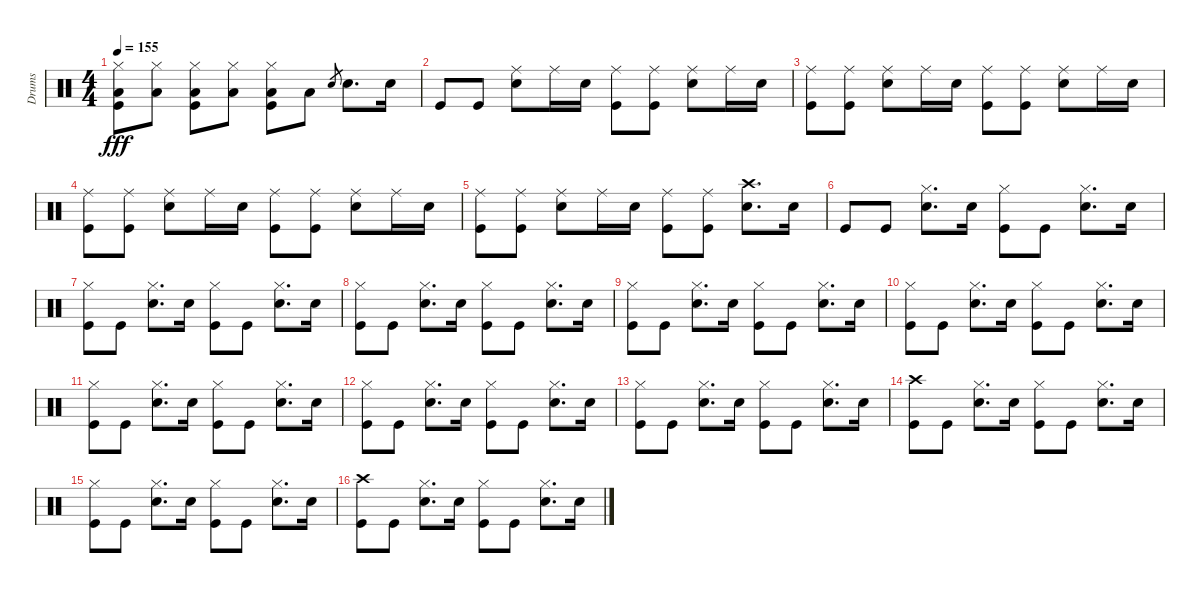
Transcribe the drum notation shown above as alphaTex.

\track ("Drums" "Drums") {instrument percussion}
\staff {score}
\articulation defaults
\ts (4 4)
\tempo 155
\clef neutral
\ks c
("Hi-Hat (closed)" "Low Floor Tom (hit)" "Kick (hit)").8{dy fff} ("Hi-Hat (closed)" "Low Floor Tom (hit)").8 ("Hi-Hat (closed)" "Low Floor Tom (hit)" "Kick (hit)").8 ("Hi-Hat (closed)" "Low Floor Tom (hit)").8 ("Hi-Hat (closed)" "Low Floor Tom (hit)" "Kick (hit)").8 "Low Floor Tom (hit)".8 "Snare (hit) 2".8{gr} "Snare (hit) 2".8{d} "Snare (hit) 2".16 |
"Kick (hit)".8 "Kick (hit)".8 ("Ride (middle)" "Snare (hit) 2").8 "Ride (middle)".16 "Snare (hit) 2".16 ("Ride (middle)" "Kick (hit)").8 ("Ride (middle)" "Kick (hit)").8 ("Ride (middle)" "Snare (hit) 2").8 "Ride (middle)".16 "Snare (hit) 2".16 |
("Ride (middle)" "Kick (hit)").8 ("Ride (middle)" "Kick (hit)").8 ("Ride (middle)" "Snare (hit) 2").8 "Ride (middle)".16 "Snare (hit) 2".16 ("Ride (middle)" "Kick (hit)").8 ("Ride (middle)" "Kick (hit)").8 ("Ride (middle)" "Snare (hit) 2").8 "Ride (middle)".16 "Snare (hit) 2".16 |
("Ride (middle)" "Kick (hit)").8 ("Ride (middle)" "Kick (hit)").8 ("Ride (middle)" "Snare (hit) 2").8 "Ride (middle)".16 "Snare (hit) 2".16 ("Ride (middle)" "Kick (hit)").8 ("Ride (middle)" "Kick (hit)").8 ("Ride (middle)" "Snare (hit) 2").8 "Ride (middle)".16 "Snare (hit) 2".16 |
("Ride (middle)" "Kick (hit)").8 ("Ride (middle)" "Kick (hit)").8 ("Ride (middle)" "Snare (hit) 2").8 "Ride (middle)".16 "Snare (hit) 2".16 ("Ride (middle)" "Kick (hit)").8 ("Ride (middle)" "Kick (hit)").8 ("Crash high (hit)" "Snare (hit) 2").8{d} "Snare (hit) 2".16 |
"Kick (hit)".8 "Kick (hit)".8 ("Hi-Hat (closed)" "Snare (hit) 2").8{d} "Snare (hit) 2".16 ("Hi-Hat (closed)" "Kick (hit)").8 "Kick (hit)".8 ("Hi-Hat (closed)" "Snare (hit) 2").8{d} "Snare (hit) 2".16 |
("Hi-Hat (closed)" "Kick (hit)").8 "Kick (hit)".8 ("Hi-Hat (closed)" "Snare (hit) 2").8{d} "Snare (hit) 2".16 ("Hi-Hat (closed)" "Kick (hit)").8 "Kick (hit)".8 ("Hi-Hat (closed)" "Snare (hit) 2").8{d} "Snare (hit) 2".16 |
("Hi-Hat (closed)" "Kick (hit)").8 "Kick (hit)".8 ("Hi-Hat (closed)" "Snare (hit) 2").8{d} "Snare (hit) 2".16 ("Hi-Hat (closed)" "Kick (hit)").8 "Kick (hit)".8 ("Hi-Hat (closed)" "Snare (hit) 2").8{d} "Snare (hit) 2".16 |
("Hi-Hat (closed)" "Kick (hit)").8 "Kick (hit)".8 ("Hi-Hat (closed)" "Snare (hit) 2").8{d} "Snare (hit) 2".16 ("Hi-Hat (closed)" "Kick (hit)").8 "Kick (hit)".8 ("Hi-Hat (closed)" "Snare (hit) 2").8{d} "Snare (hit) 2".16 |
("Hi-Hat (closed)" "Kick (hit)").8 "Kick (hit)".8 ("Hi-Hat (closed)" "Snare (hit) 2").8{d} "Snare (hit) 2".16 ("Hi-Hat (closed)" "Kick (hit)").8 "Kick (hit)".8 ("Hi-Hat (closed)" "Snare (hit) 2").8{d} "Snare (hit) 2".16 |
("Hi-Hat (closed)" "Kick (hit)").8 "Kick (hit)".8 ("Hi-Hat (closed)" "Snare (hit) 2").8{d} "Snare (hit) 2".16 ("Hi-Hat (closed)" "Kick (hit)").8 "Kick (hit)".8 ("Hi-Hat (closed)" "Snare (hit) 2").8{d} "Snare (hit) 2".16 |
("Hi-Hat (closed)" "Kick (hit)").8 "Kick (hit)".8 ("Hi-Hat (closed)" "Snare (hit) 2").8{d} "Snare (hit) 2".16 ("Hi-Hat (closed)" "Kick (hit)").8 "Kick (hit)".8 ("Hi-Hat (closed)" "Snare (hit) 2").8{d} "Snare (hit) 2".16 |
("Hi-Hat (closed)" "Kick (hit)").8 "Kick (hit)".8 ("Hi-Hat (closed)" "Snare (hit) 2").8{d} "Snare (hit) 2".16 ("Hi-Hat (closed)" "Kick (hit)").8 "Kick (hit)".8 ("Hi-Hat (closed)" "Snare (hit) 2").8{d} "Snare (hit) 2".16 |
("Crash high (hit)" "Kick (hit)").8 "Kick (hit)".8 ("Hi-Hat (closed)" "Snare (hit) 2").8{d} "Snare (hit) 2".16 ("Hi-Hat (closed)" "Kick (hit)").8 "Kick (hit)".8 ("Hi-Hat (closed)" "Snare (hit) 2").8{d} "Snare (hit) 2".16 |
("Hi-Hat (closed)" "Kick (hit)").8 "Kick (hit)".8 ("Hi-Hat (closed)" "Snare (hit) 2").8{d} "Snare (hit) 2".16 ("Hi-Hat (closed)" "Kick (hit)").8 "Kick (hit)".8 ("Hi-Hat (closed)" "Snare (hit) 2").8{d} "Snare (hit) 2".16 |
("Crash high (hit)" "Kick (hit)").8 "Kick (hit)".8 ("Hi-Hat (closed)" "Snare (hit) 2").8{d} "Snare (hit) 2".16 ("Hi-Hat (closed)" "Kick (hit)").8 "Kick (hit)".8 ("Hi-Hat (closed)" "Snare (hit) 2").8{d} "Snare (hit) 2".16
